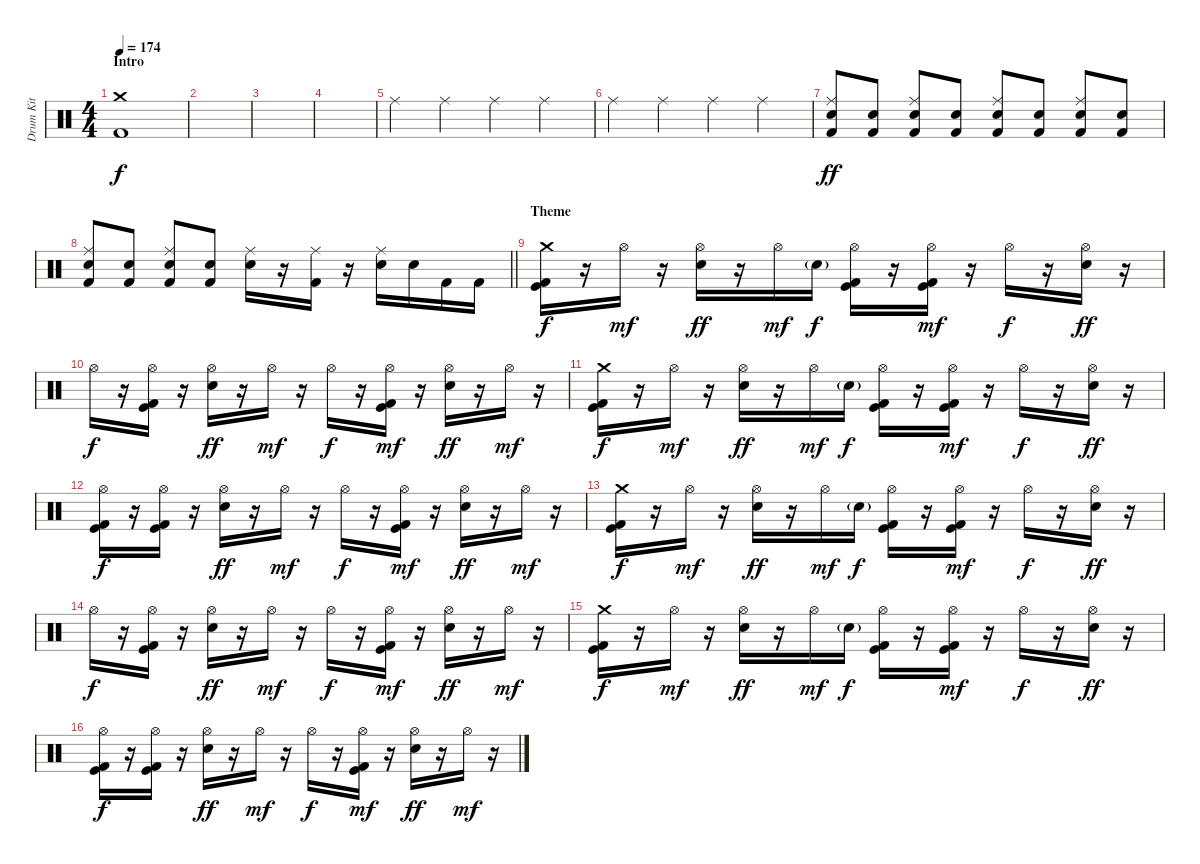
\track ("Drum Kit" "Drum Kit") {instrument percussion}
\staff {score}
\articulation defaults
\ts (4 4)
\section ("" "Intro")
\tempo 174
\clef neutral
\ks c
("Crash medium (hit)" "Kick (hit) 2").1{dy f} |
|
|
|
"Ride (middle)".4 "Ride (middle)".4 "Ride (middle)".4 "Ride (middle)".4 |
"Ride (middle)".4 "Ride (middle)".4 "Ride (middle)".4 "Ride (middle)".4 |
("Ride (middle)" "Electric Snare (hit)" "Kick (hit) 2").8{dy ff} ("Electric Snare (hit)" "Kick (hit) 2").8 ("Ride (middle)" "Electric Snare (hit)" "Kick (hit) 2").8 ("Electric Snare (hit)" "Kick (hit) 2").8 ("Ride (middle)" "Electric Snare (hit)" "Kick (hit) 2").8 ("Electric Snare (hit)" "Kick (hit) 2").8 ("Ride (middle)" "Electric Snare (hit)" "Kick (hit) 2").8 ("Electric Snare (hit)" "Kick (hit) 2").8 |
\barLineRight lightlight
("Ride (middle)" "Electric Snare (hit)" "Kick (hit) 2").8 ("Electric Snare (hit)" "Kick (hit) 2").8 ("Ride (middle)" "Electric Snare (hit)" "Kick (hit) 2").8 ("Electric Snare (hit)" "Kick (hit) 2").8 ("Ride (middle)" "Electric Snare (hit)").16 r.16 ("Ride (middle)" "Kick (hit) 2").16 r.16 ("Ride (middle)" "Electric Snare (hit)").16 "Electric Snare (hit)".16 "Kick (hit) 2".16 "Kick (hit) 2".16 |
\section ("" "Theme")
("Crash medium (hit)" "Kick (hit)" "Kick (hit) 2").16{dy f} r.16 "Hi-Hat (open)".16{dy mf} r.16 ("Hi-Hat (open)" "Electric Snare (hit)").16{dy ff} r.16 "Hi-Hat (open)".16{dy mf} "Electric Snare (hit)"{g}.16{dy f} ("Hi-Hat (open)" "Kick (hit)" "Kick (hit) 2").16 r.16 ("Hi-Hat (open)" "Kick (hit)" "Kick (hit) 2").16{dy mf} r.16 "Hi-Hat (open)".16{dy f} r.16 ("Hi-Hat (open)" "Electric Snare (hit)").16{dy ff} r.16 |
"Hi-Hat (open)".16{dy f} r.16 ("Hi-Hat (open)" "Kick (hit)" "Kick (hit) 2").16 r.16 ("Hi-Hat (open)" "Electric Snare (hit)").16{dy ff} r.16 "Hi-Hat (open)".16{dy mf} r.16 "Hi-Hat (open)".16{dy f} r.16 ("Hi-Hat (open)" "Kick (hit)" "Kick (hit) 2").16{dy mf} r.16 ("Hi-Hat (open)" "Electric Snare (hit)").16{dy ff} r.16 "Hi-Hat (open)".16{dy mf} r.16 |
("Crash medium (hit)" "Kick (hit)" "Kick (hit) 2").16{dy f} r.16 "Hi-Hat (open)".16{dy mf} r.16 ("Hi-Hat (open)" "Electric Snare (hit)").16{dy ff} r.16 "Hi-Hat (open)".16{dy mf} "Electric Snare (hit)"{g}.16{dy f} ("Hi-Hat (open)" "Kick (hit)" "Kick (hit) 2").16 r.16 ("Hi-Hat (open)" "Kick (hit)" "Kick (hit) 2").16{dy mf} r.16 "Hi-Hat (open)".16{dy f} r.16 ("Hi-Hat (open)" "Electric Snare (hit)").16{dy ff} r.16 |
("Hi-Hat (open)" "Kick (hit)" "Kick (hit) 2").16{dy f} r.16 ("Hi-Hat (open)" "Kick (hit)" "Kick (hit) 2").16 r.16 ("Hi-Hat (open)" "Electric Snare (hit)").16{dy ff} r.16 "Hi-Hat (open)".16{dy mf} r.16 "Hi-Hat (open)".16{dy f} r.16 ("Hi-Hat (open)" "Kick (hit)" "Kick (hit) 2").16{dy mf} r.16 ("Hi-Hat (open)" "Electric Snare (hit)").16{dy ff} r.16 "Hi-Hat (open)".16{dy mf} r.16 |
("Crash medium (hit)" "Kick (hit)" "Kick (hit) 2").16{dy f} r.16 "Hi-Hat (open)".16{dy mf} r.16 ("Hi-Hat (open)" "Electric Snare (hit)").16{dy ff} r.16 "Hi-Hat (open)".16{dy mf} "Electric Snare (hit)"{g}.16{dy f} ("Hi-Hat (open)" "Kick (hit)" "Kick (hit) 2").16 r.16 ("Hi-Hat (open)" "Kick (hit)" "Kick (hit) 2").16{dy mf} r.16 "Hi-Hat (open)".16{dy f} r.16 ("Hi-Hat (open)" "Electric Snare (hit)").16{dy ff} r.16 |
"Hi-Hat (open)".16{dy f} r.16 ("Hi-Hat (open)" "Kick (hit)" "Kick (hit) 2").16 r.16 ("Hi-Hat (open)" "Electric Snare (hit)").16{dy ff} r.16 "Hi-Hat (open)".16{dy mf} r.16 "Hi-Hat (open)".16{dy f} r.16 ("Hi-Hat (open)" "Kick (hit)" "Kick (hit) 2").16{dy mf} r.16 ("Hi-Hat (open)" "Electric Snare (hit)").16{dy ff} r.16 "Hi-Hat (open)".16{dy mf} r.16 |
("Crash medium (hit)" "Kick (hit)" "Kick (hit) 2").16{dy f} r.16 "Hi-Hat (open)".16{dy mf} r.16 ("Hi-Hat (open)" "Electric Snare (hit)").16{dy ff} r.16 "Hi-Hat (open)".16{dy mf} "Electric Snare (hit)"{g}.16{dy f} ("Hi-Hat (open)" "Kick (hit)" "Kick (hit) 2").16 r.16 ("Hi-Hat (open)" "Kick (hit)" "Kick (hit) 2").16{dy mf} r.16 "Hi-Hat (open)".16{dy f} r.16 ("Hi-Hat (open)" "Electric Snare (hit)").16{dy ff} r.16 |
("Hi-Hat (open)" "Kick (hit)" "Kick (hit) 2").16{dy f} r.16 ("Hi-Hat (open)" "Kick (hit)" "Kick (hit) 2").16 r.16 ("Hi-Hat (open)" "Electric Snare (hit)").16{dy ff} r.16 "Hi-Hat (open)".16{dy mf} r.16 "Hi-Hat (open)".16{dy f} r.16 ("Hi-Hat (open)" "Kick (hit)" "Kick (hit) 2").16{dy mf} r.16 ("Hi-Hat (open)" "Electric Snare (hit)").16{dy ff} r.16 "Hi-Hat (open)".16{dy mf} r.16
